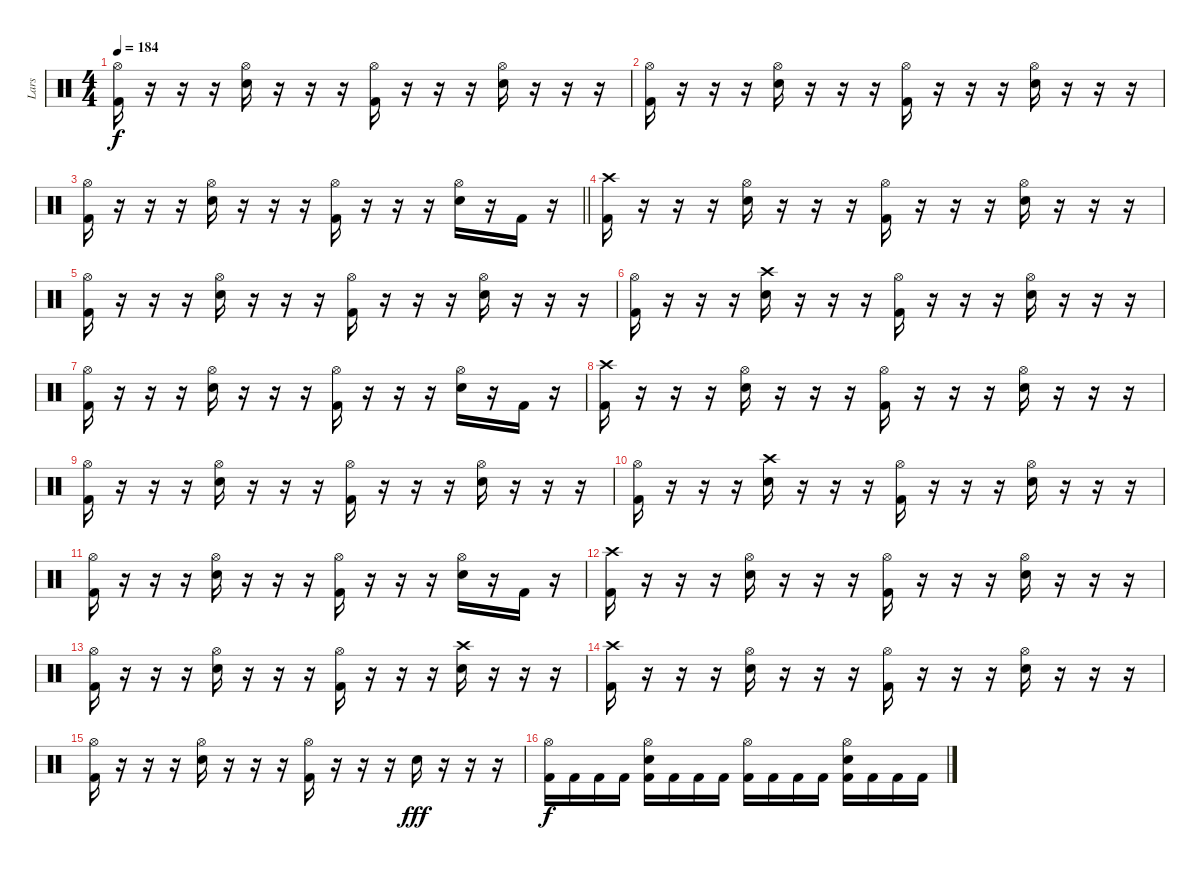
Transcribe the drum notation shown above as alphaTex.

\track ("Lars" "Lars") {instrument percussion}
\staff {score}
\articulation defaults
\ts (4 4)
\tempo 184
\clef neutral
\ks c
("Hi-Hat (open)" "Kick (hit) 2").16{dy f} r.16 r.16 r.16 ("Electric Snare (hit)" "Hi-Hat (open)").16 r.16 r.16 r.16 ("Hi-Hat (open)" "Kick (hit) 2").16 r.16 r.16 r.16 ("Electric Snare (hit)" "Hi-Hat (open)").16 r.16 r.16 r.16 |
("Hi-Hat (open)" "Kick (hit) 2").16 r.16 r.16 r.16 ("Electric Snare (hit)" "Hi-Hat (open)").16 r.16 r.16 r.16 ("Hi-Hat (open)" "Kick (hit) 2").16 r.16 r.16 r.16 ("Electric Snare (hit)" "Hi-Hat (open)").16 r.16 r.16 r.16 |
\barLineRight lightlight
("Hi-Hat (open)" "Kick (hit) 2").16 r.16 r.16 r.16 ("Electric Snare (hit)" "Hi-Hat (open)").16 r.16 r.16 r.16 ("Hi-Hat (open)" "Kick (hit) 2").16 r.16 r.16 r.16 ("Electric Snare (hit)" "Hi-Hat (open)").16 r.16 "Kick (hit) 2".16 r.16 |
("Crash high (hit)" "Kick (hit) 2").16 r.16 r.16 r.16 ("Electric Snare (hit)" "Hi-Hat (open)").16 r.16 r.16 r.16 ("Hi-Hat (open)" "Kick (hit) 2").16 r.16 r.16 r.16 ("Electric Snare (hit)" "Hi-Hat (open)").16 r.16 r.16 r.16 |
("Hi-Hat (open)" "Kick (hit) 2").16 r.16 r.16 r.16 ("Electric Snare (hit)" "Hi-Hat (open)").16 r.16 r.16 r.16 ("Hi-Hat (open)" "Kick (hit) 2").16 r.16 r.16 r.16 ("Electric Snare (hit)" "Hi-Hat (open)").16 r.16 r.16 r.16 |
("Hi-Hat (open)" "Kick (hit) 2").16 r.16 r.16 r.16 ("Crash high (hit)" "Electric Snare (hit)").16 r.16 r.16 r.16 ("Hi-Hat (open)" "Kick (hit) 2").16 r.16 r.16 r.16 ("Electric Snare (hit)" "Hi-Hat (open)").16 r.16 r.16 r.16 |
("Hi-Hat (open)" "Kick (hit) 2").16 r.16 r.16 r.16 ("Electric Snare (hit)" "Hi-Hat (open)").16 r.16 r.16 r.16 ("Hi-Hat (open)" "Kick (hit) 2").16 r.16 r.16 r.16 ("Electric Snare (hit)" "Hi-Hat (open)").16 r.16 "Kick (hit) 2".16 r.16 |
("Crash high (hit)" "Kick (hit) 2").16 r.16 r.16 r.16 ("Electric Snare (hit)" "Hi-Hat (open)").16 r.16 r.16 r.16 ("Hi-Hat (open)" "Kick (hit) 2").16 r.16 r.16 r.16 ("Electric Snare (hit)" "Hi-Hat (open)").16 r.16 r.16 r.16 |
("Hi-Hat (open)" "Kick (hit) 2").16 r.16 r.16 r.16 ("Electric Snare (hit)" "Hi-Hat (open)").16 r.16 r.16 r.16 ("Hi-Hat (open)" "Kick (hit) 2").16 r.16 r.16 r.16 ("Electric Snare (hit)" "Hi-Hat (open)").16 r.16 r.16 r.16 |
("Hi-Hat (open)" "Kick (hit) 2").16 r.16 r.16 r.16 ("Crash high (hit)" "Electric Snare (hit)").16 r.16 r.16 r.16 ("Hi-Hat (open)" "Kick (hit) 2").16 r.16 r.16 r.16 ("Electric Snare (hit)" "Hi-Hat (open)").16 r.16 r.16 r.16 |
("Hi-Hat (open)" "Kick (hit) 2").16 r.16 r.16 r.16 ("Electric Snare (hit)" "Hi-Hat (open)").16 r.16 r.16 r.16 ("Hi-Hat (open)" "Kick (hit) 2").16 r.16 r.16 r.16 ("Electric Snare (hit)" "Hi-Hat (open)").16 r.16 "Kick (hit) 2".16 r.16 |
("Crash high (hit)" "Kick (hit) 2").16 r.16 r.16 r.16 ("Electric Snare (hit)" "Hi-Hat (open)").16 r.16 r.16 r.16 ("Hi-Hat (open)" "Kick (hit) 2").16 r.16 r.16 r.16 ("Electric Snare (hit)" "Hi-Hat (open)").16 r.16 r.16 r.16 |
("Hi-Hat (open)" "Kick (hit) 2").16 r.16 r.16 r.16 ("Electric Snare (hit)" "Hi-Hat (open)").16 r.16 r.16 r.16 ("Hi-Hat (open)" "Kick (hit) 2").16 r.16 r.16 r.16 ("Crash high (hit)" "Electric Snare (hit)").16 r.16 r.16 r.16 |
("Crash high (hit)" "Kick (hit) 2").16 r.16 r.16 r.16 ("Electric Snare (hit)" "Hi-Hat (open)").16 r.16 r.16 r.16 ("Hi-Hat (open)" "Kick (hit) 2").16 r.16 r.16 r.16 ("Electric Snare (hit)" "Hi-Hat (open)").16 r.16 r.16 r.16 |
("Hi-Hat (open)" "Kick (hit) 2").16 r.16 r.16 r.16 ("Electric Snare (hit)" "Hi-Hat (open)").16 r.16 r.16 r.16 ("Hi-Hat (open)" "Kick (hit) 2").16 r.16 r.16 r.16 "Electric Snare (hit)".16{dy fff} r.16 r.16 r.16 |
("Hi-Hat (open)" "Kick (hit) 2").16{dy f} "Kick (hit) 2".16 "Kick (hit) 2".16 "Kick (hit) 2".16 ("Electric Snare (hit)" "Hi-Hat (open)" "Kick (hit) 2").16 "Kick (hit) 2".16 "Kick (hit) 2".16 "Kick (hit) 2".16 ("Hi-Hat (open)" "Kick (hit) 2").16 "Kick (hit) 2".16 "Kick (hit) 2".16 "Kick (hit) 2".16 ("Electric Snare (hit)" "Hi-Hat (open)" "Kick (hit) 2").16 "Kick (hit) 2".16 "Kick (hit) 2".16 "Kick (hit) 2".16
